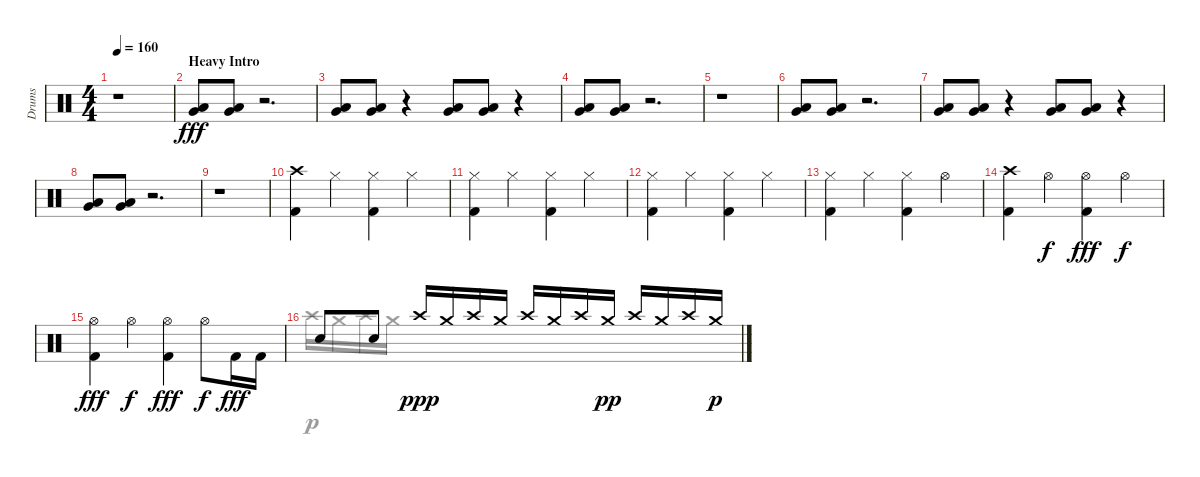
\track ("Drums" "Drums") {instrument percussion}
\staff {score}
\articulation defaults
\voice
\ts (4 4)
\tempo 160
\clef neutral
\ks aminor
r.1{dy fff} |
\section ("" "Heavy Intro")
("Low Floor Tom (hit)" "Very Low Tom (hit)").8 ("Low Floor Tom (hit)" "Very Low Tom (hit)").8 r.2{d} |
("Low Floor Tom (hit)" "Very Low Tom (hit)").8 ("Low Floor Tom (hit)" "Very Low Tom (hit)").8 r.4 ("Low Floor Tom (hit)" "Very Low Tom (hit)").8 ("Low Floor Tom (hit)" "Very Low Tom (hit)").8 r.4 |
("Low Floor Tom (hit)" "Very Low Tom (hit)").8 ("Low Floor Tom (hit)" "Very Low Tom (hit)").8 r.2{d} |
r.1 |
("Low Floor Tom (hit)" "Very Low Tom (hit)").8 ("Low Floor Tom (hit)" "Very Low Tom (hit)").8 r.2{d} |
("Low Floor Tom (hit)" "Very Low Tom (hit)").8 ("Low Floor Tom (hit)" "Very Low Tom (hit)").8 r.4 ("Low Floor Tom (hit)" "Very Low Tom (hit)").8 ("Low Floor Tom (hit)" "Very Low Tom (hit)").8 r.4 |
("Low Floor Tom (hit)" "Very Low Tom (hit)").8 ("Low Floor Tom (hit)" "Very Low Tom (hit)").8 r.2{d} |
r.1 |
("Kick (hit) 2" "Crash high (hit)").4 "Hi-Hat (closed)".4 ("Kick (hit) 2" "Hi-Hat (closed)").4 "Hi-Hat (closed)".4 |
("Kick (hit) 2" "Hi-Hat (closed)").4 "Hi-Hat (closed)".4 ("Kick (hit) 2" "Hi-Hat (closed)").4 "Hi-Hat (closed)".4 |
("Kick (hit) 2" "Hi-Hat (closed)").4 "Hi-Hat (closed)".4 ("Kick (hit) 2" "Hi-Hat (closed)").4 "Hi-Hat (closed)".4 |
("Kick (hit) 2" "Hi-Hat (closed)").4 "Hi-Hat (closed)".4 ("Kick (hit) 2" "Hi-Hat (closed)").4 "Hi-Hat (open)".4 |
("Kick (hit) 2" "Crash high (hit)").4 "Hi-Hat (open)".4{dy f} ("Kick (hit) 2" "Hi-Hat (open)").4{dy fff} "Hi-Hat (open)".4{dy f} |
("Kick (hit) 2" "Hi-Hat (open)").4{dy fff} "Hi-Hat (open)".4{dy f} ("Kick (hit) 2" "Hi-Hat (open)").4{dy fff} "Hi-Hat (open)".8{dy f} "Kick (hit) 2".16{dy fff} "Kick (hit) 2".16 |
"Snare (hit) 2".8 "Snare (hit) 2".8 "Crash high (hit)".16{dy ppp} "Crash medium (hit)".16 "Crash high (hit)".16 "Crash medium (hit)".16 "Crash high (hit)".16 "Crash medium (hit)".16 "Crash high (hit)".16 "Crash medium (hit)".16{dy pp} "Crash high (hit)".16 "Crash medium (hit)".16 "Crash high (hit)".16 "Crash medium (hit)".16{dy p}
\voice
\clef neutral
\ottava regular
\simile none
\ks aminor
|
|
|
|
|
|
|
|
|
|
|
|
|
|
|
"Crash high (hit)".16 "Crash medium (hit)".16 "Crash high (hit)".16 "Crash medium (hit)".16
